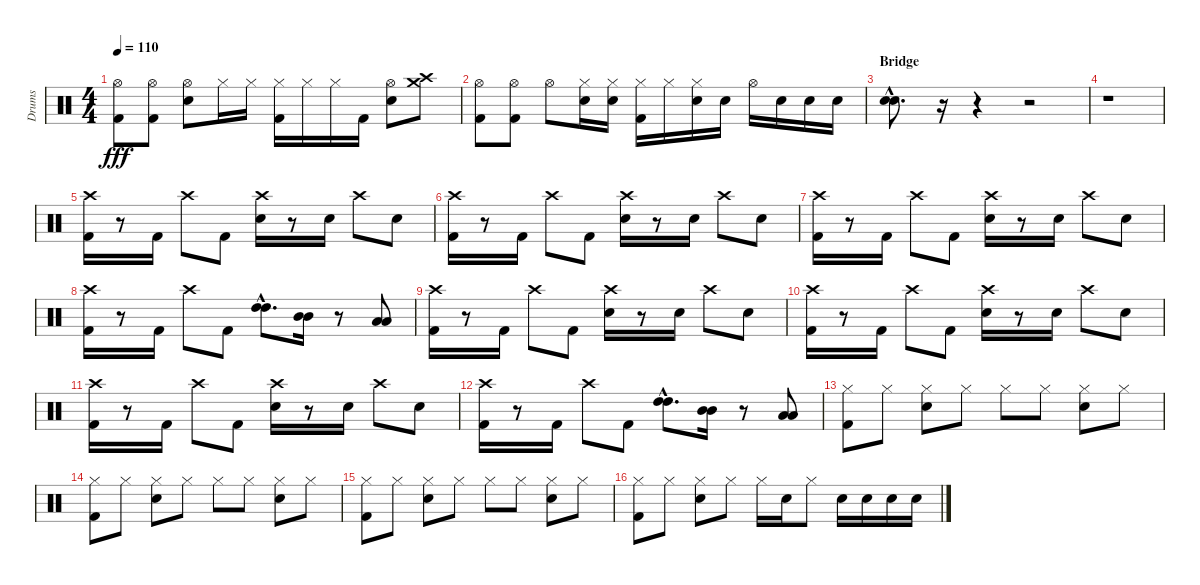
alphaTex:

\track ("Drums" "Drums") {instrument percussion}
\staff {score}
\articulation defaults
\ts (4 4)
\tempo 110
\clef neutral
\ks c
("Hi-Hat (open)" "Kick (hit) 2").8{dy fff} ("Hi-Hat (open)" "Kick (hit) 2").8 ("Hi-Hat (open)" "Electric Snare (hit)").8 "Hi-Hat (closed)".16 "Hi-Hat (closed)".16 ("Hi-Hat (closed)" "Kick (hit) 2").16 "Hi-Hat (closed)".16 "Hi-Hat (closed)".16 "Kick (hit) 2".16 ("Hi-Hat (open)" "Electric Snare (hit)").8 ("Crash high (hit)" "Crash medium (hit)").8 |
("Hi-Hat (open)" "Kick (hit) 2").8 ("Hi-Hat (open)" "Kick (hit) 2").8 "Hi-Hat (open)".8 ("Hi-Hat (closed)" "Electric Snare (hit)").16 ("Hi-Hat (closed)" "Electric Snare (hit)").16 ("Hi-Hat (closed)" "Kick (hit) 2").16 "Hi-Hat (closed)".16 ("Hi-Hat (closed)" "Electric Snare (hit)").16 "Electric Snare (hit)".16 "Hi-Hat (open)".16 "Electric Snare (hit)".16 "Electric Snare (hit)".16 "Electric Snare (hit)".16 |
\section ("" "Bridge")
("Electric Snare (hit)"{hac} "Electric Snare (hit)"{hac}).8{d} r.16 r.4 r.2 |
r.1 |
("Crash high (hit)" "Kick (hit) 2").16 r.8 "Kick (hit) 2".16 "Crash high (hit)".8 "Kick (hit) 2".8 ("Crash high (hit)" "Electric Snare (hit)").16 r.8 "Electric Snare (hit)".16 "Crash high (hit)".8 "Electric Snare (hit)".8 |
("Crash high (hit)" "Kick (hit) 2").16 r.8 "Kick (hit) 2".16 "Crash high (hit)".8 "Kick (hit) 2".8 ("Crash high (hit)" "Electric Snare (hit)").16 r.8 "Electric Snare (hit)".16 "Crash high (hit)".8 "Electric Snare (hit)".8 |
("Crash high (hit)" "Kick (hit) 2").16 r.8 "Kick (hit) 2".16 "Crash high (hit)".8 "Kick (hit) 2".8 ("Crash high (hit)" "Electric Snare (hit)").16 r.8 "Electric Snare (hit)".16 "Crash high (hit)".8 "Electric Snare (hit)".8 |
("Crash high (hit)" "Kick (hit) 2").16 r.8 "Kick (hit) 2".16 "Crash high (hit)".8 "Kick (hit) 2".8 ("High Tom (hit)"{hac} "High Tom (hit)"{hac}).8{d} ("Mid Tom (hit)" "Mid Tom (hit)").16 r.8 ("Low Tom (hit)" "Low Tom (hit)").8 |
("Crash high (hit)" "Kick (hit) 2").16 r.8 "Kick (hit) 2".16 "Crash high (hit)".8 "Kick (hit) 2".8 ("Crash high (hit)" "Electric Snare (hit)").16 r.8 "Electric Snare (hit)".16 "Crash high (hit)".8 "Electric Snare (hit)".8 |
("Crash high (hit)" "Kick (hit) 2").16 r.8 "Kick (hit) 2".16 "Crash high (hit)".8 "Kick (hit) 2".8 ("Crash high (hit)" "Electric Snare (hit)").16 r.8 "Electric Snare (hit)".16 "Crash high (hit)".8 "Electric Snare (hit)".8 |
("Crash high (hit)" "Kick (hit) 2").16 r.8 "Kick (hit) 2".16 "Crash high (hit)".8 "Kick (hit) 2".8 ("Crash high (hit)" "Electric Snare (hit)").16 r.8 "Electric Snare (hit)".16 "Crash high (hit)".8 "Electric Snare (hit)".8 |
("Crash high (hit)" "Kick (hit) 2").16 r.8 "Kick (hit) 2".16 "Crash high (hit)".8 "Kick (hit) 2".8 ("High Tom (hit)"{hac} "High Tom (hit)"{hac}).8{d} ("Mid Tom (hit)" "Mid Tom (hit)").16 r.8 ("Low Tom (hit)" "Low Tom (hit)").8 |
("Hi-Hat (closed)" "Kick (hit) 2").8 "Hi-Hat (closed)".8 ("Hi-Hat (closed)" "Electric Snare (hit)").8 "Hi-Hat (closed)".8 "Hi-Hat (closed)".8 "Hi-Hat (closed)".8 ("Hi-Hat (closed)" "Electric Snare (hit)").8 "Hi-Hat (closed)".8 |
("Hi-Hat (closed)" "Kick (hit) 2").8 "Hi-Hat (closed)".8 ("Hi-Hat (closed)" "Electric Snare (hit)").8 "Hi-Hat (closed)".8 "Hi-Hat (closed)".8 "Hi-Hat (closed)".8 ("Hi-Hat (closed)" "Electric Snare (hit)").8 "Hi-Hat (closed)".8 |
("Hi-Hat (closed)" "Kick (hit) 2").8 "Hi-Hat (closed)".8 ("Hi-Hat (closed)" "Electric Snare (hit)").8 "Hi-Hat (closed)".8 "Hi-Hat (closed)".8 "Hi-Hat (closed)".8 ("Hi-Hat (closed)" "Electric Snare (hit)").8 "Hi-Hat (closed)".8 |
("Hi-Hat (closed)" "Kick (hit) 2").8 "Hi-Hat (closed)".8 ("Hi-Hat (closed)" "Electric Snare (hit)").8 "Hi-Hat (closed)".8 "Hi-Hat (closed)".16 "Electric Snare (hit)".16 "Hi-Hat (closed)".8 "Electric Snare (hit)".16 "Electric Snare (hit)".16 "Electric Snare (hit)".16 "Electric Snare (hit)".16
